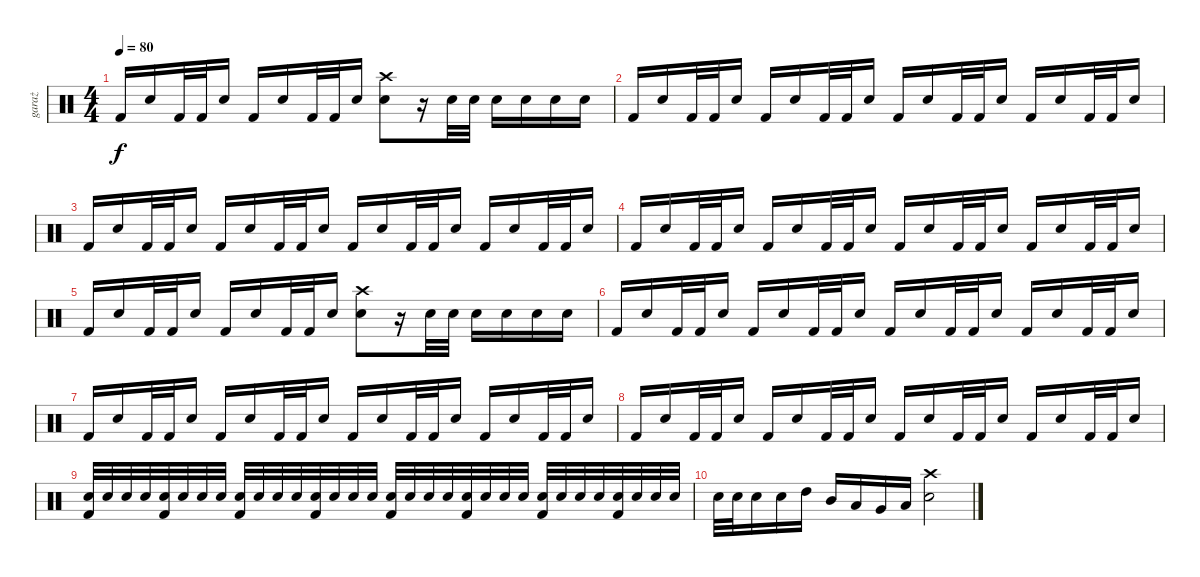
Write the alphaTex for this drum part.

\track ("garaż" "garaż") {instrument percussion}
\staff {score}
\articulation defaults
\ts (4 4)
\tempo 80
\clef neutral
\ks c "Kick (hit) 2".16{dy f} "Snare (hit) 2".16 "Kick (hit) 2".32 "Kick (hit) 2".32 "Snare (hit) 2".16 "Kick (hit) 2".16 "Snare (hit) 2".16 "Kick (hit) 2".32 "Kick (hit) 2".32 "Snare (hit) 2".16
("Crash high (hit)" "Snare (hit) 2").8 r.16 "Snare (hit) 2".32 "Snare (hit) 2".32 "Snare (hit) 2".16 "Snare (hit) 2".16 "Snare (hit) 2".16 "Snare (hit) 2".16 |
"Kick (hit) 2".16 "Snare (hit) 2".16 "Kick (hit) 2".32 "Kick (hit) 2".32 "Snare (hit) 2".16 "Kick (hit) 2".16 "Snare (hit) 2".16 "Kick (hit) 2".32 "Kick (hit) 2".32 "Snare (hit) 2".16 "Kick (hit) 2".16 "Snare (hit) 2".16 "Kick (hit) 2".32 "Kick (hit) 2".32 "Snare (hit) 2".16 "Kick (hit) 2".16 "Snare (hit) 2".16 "Kick (hit) 2".32 "Kick (hit) 2".32 "Snare (hit) 2".16 |
"Kick (hit) 2".16 "Snare (hit) 2".16 "Kick (hit) 2".32 "Kick (hit) 2".32 "Snare (hit) 2".16 "Kick (hit) 2".16 "Snare (hit) 2".16 "Kick (hit) 2".32 "Kick (hit) 2".32 "Snare (hit) 2".16 "Kick (hit) 2".16 "Snare (hit) 2".16 "Kick (hit) 2".32 "Kick (hit) 2".32 "Snare (hit) 2".16 "Kick (hit) 2".16 "Snare (hit) 2".16 "Kick (hit) 2".32 "Kick (hit) 2".32 "Snare (hit) 2".16 |
"Kick (hit) 2".16 "Snare (hit) 2".16 "Kick (hit) 2".32 "Kick (hit) 2".32 "Snare (hit) 2".16 "Kick (hit) 2".16 "Snare (hit) 2".16 "Kick (hit) 2".32 "Kick (hit) 2".32 "Snare (hit) 2".16 "Kick (hit) 2".16 "Snare (hit) 2".16 "Kick (hit) 2".32 "Kick (hit) 2".32 "Snare (hit) 2".16 "Kick (hit) 2".16 "Snare (hit) 2".16 "Kick (hit) 2".32 "Kick (hit) 2".32 "Snare (hit) 2".16 |
"Kick (hit) 2".16 "Snare (hit) 2".16 "Kick (hit) 2".32 "Kick (hit) 2".32 "Snare (hit) 2".16 "Kick (hit) 2".16 "Snare (hit) 2".16 "Kick (hit) 2".32 "Kick (hit) 2".32 "Snare (hit) 2".16 ("Crash high (hit)" "Snare (hit) 2").8 r.16 "Snare (hit) 2".32 "Snare (hit) 2".32 "Snare (hit) 2".16 "Snare (hit) 2".16 "Snare (hit) 2".16 "Snare (hit) 2".16 |
"Kick (hit) 2".16 "Snare (hit) 2".16 "Kick (hit) 2".32 "Kick (hit) 2".32 "Snare (hit) 2".16 "Kick (hit) 2".16 "Snare (hit) 2".16 "Kick (hit) 2".32 "Kick (hit) 2".32 "Snare (hit) 2".16 "Kick (hit) 2".16 "Snare (hit) 2".16 "Kick (hit) 2".32 "Kick (hit) 2".32 "Snare (hit) 2".16 "Kick (hit) 2".16 "Snare (hit) 2".16 "Kick (hit) 2".32 "Kick (hit) 2".32 "Snare (hit) 2".16 |
"Kick (hit) 2".16 "Snare (hit) 2".16 "Kick (hit) 2".32 "Kick (hit) 2".32 "Snare (hit) 2".16 "Kick (hit) 2".16 "Snare (hit) 2".16 "Kick (hit) 2".32 "Kick (hit) 2".32 "Snare (hit) 2".16 "Kick (hit) 2".16 "Snare (hit) 2".16 "Kick (hit) 2".32 "Kick (hit) 2".32 "Snare (hit) 2".16 "Kick (hit) 2".16 "Snare (hit) 2".16 "Kick (hit) 2".32 "Kick (hit) 2".32 "Snare (hit) 2".16 |
"Kick (hit) 2".16 "Snare (hit) 2".16 "Kick (hit) 2".32 "Kick (hit) 2".32 "Snare (hit) 2".16 "Kick (hit) 2".16 "Snare (hit) 2".16 "Kick (hit) 2".32 "Kick (hit) 2".32 "Snare (hit) 2".16 "Kick (hit) 2".16 "Snare (hit) 2".16 "Kick (hit) 2".32 "Kick (hit) 2".32 "Snare (hit) 2".16 "Kick (hit) 2".16 "Snare (hit) 2".16 "Kick (hit) 2".32 "Kick (hit) 2".32 "Snare (hit) 2".16 |
("Snare (hit) 2" "Kick (hit) 2").32 "Snare (hit) 2".32 "Snare (hit) 2".32 "Snare (hit) 2".32 ("Snare (hit) 2" "Kick (hit) 2").32 "Snare (hit) 2".32 "Snare (hit) 2".32 "Snare (hit) 2".32 ("Snare (hit) 2" "Kick (hit) 2").32 "Snare (hit) 2".32 "Snare (hit) 2".32 "Snare (hit) 2".32 ("Snare (hit) 2" "Kick (hit) 2").32 "Snare (hit) 2".32 "Snare (hit) 2".32 "Snare (hit) 2".32 ("Snare (hit) 2" "Kick (hit) 2").32 "Snare (hit) 2".32 "Snare (hit) 2".32 "Snare (hit) 2".32 ("Snare (hit) 2" "Kick (hit) 2").32 "Snare (hit) 2".32 "Snare (hit) 2".32 "Snare (hit) 2".32 ("Snare (hit) 2" "Kick (hit) 2").32 "Snare (hit) 2".32 "Snare (hit) 2".32 "Snare (hit) 2".32 ("Snare (hit) 2" "Kick (hit) 2").32 "Snare (hit) 2".32 "Snare (hit) 2".32 "Snare (hit) 2".32 |
"Snare (hit) 2".32 "Snare (hit) 2".32 "Snare (hit) 2".16 "Snare (hit) 2".16 "High Tom (hit)".16 "Mid Tom (hit)".16 "Low Tom (hit)".16 "Very Low Tom (hit)".16 "Low Floor Tom (hit)".16 ("Crash high (hit)" "Snare (hit) 2").2
